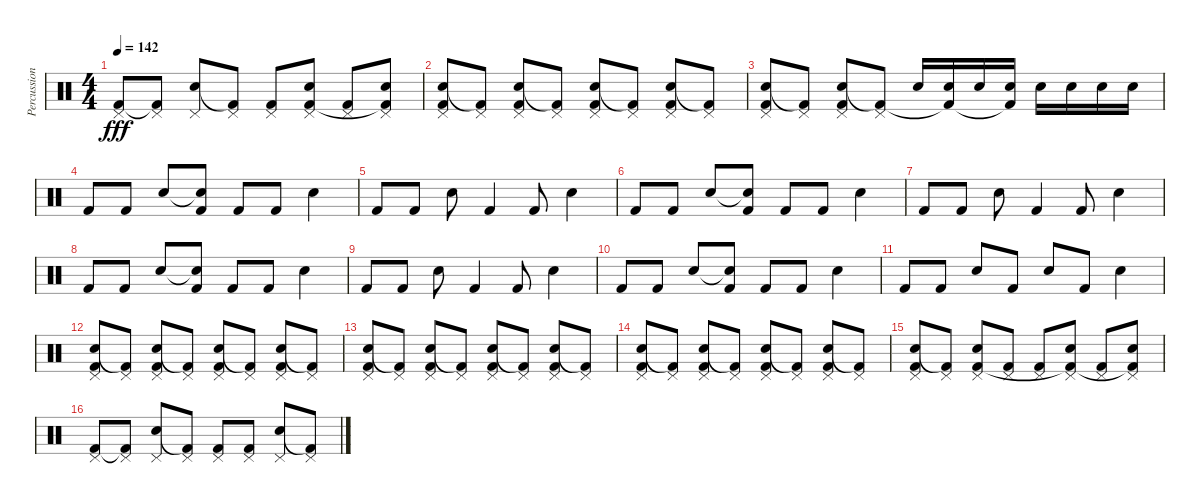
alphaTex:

\track ("Percussion" "Percussion") {instrument percussion}
\staff {score}
\articulation defaults
\ts (4 4)
\tempo 142
\clef neutral
\ks c
("Pedal Hi-Hat (hit)" "Kick (hit) 2").8{dy fff} ("Pedal Hi-Hat (hit)" "Kick (hit) 2"{t}).8 ("Pedal Hi-Hat (hit)" "Snare (hit) 2").8 ("Pedal Hi-Hat (hit)" "Kick (hit) 2"{t}).8 ("Pedal Hi-Hat (hit)" "Kick (hit) 2").8 ("Pedal Hi-Hat (hit)" "Snare (hit) 2" "Kick (hit) 2"{t}).8 ("Pedal Hi-Hat (hit)" "Kick (hit) 2").8 ("Pedal Hi-Hat (hit)" "Snare (hit) 2" "Kick (hit) 2"{t}).8 |
("Pedal Hi-Hat (hit)" "Snare (hit) 2" "Kick (hit) 2").8 ("Pedal Hi-Hat (hit)" "Kick (hit) 2"{t}).8 ("Pedal Hi-Hat (hit)" "Snare (hit) 2" "Kick (hit) 2").8 ("Pedal Hi-Hat (hit)" "Kick (hit) 2"{t}).8 ("Pedal Hi-Hat (hit)" "Snare (hit) 2" "Kick (hit) 2").8 ("Pedal Hi-Hat (hit)" "Kick (hit) 2"{t}).8 ("Pedal Hi-Hat (hit)" "Snare (hit) 2" "Kick (hit) 2").8 ("Pedal Hi-Hat (hit)" "Kick (hit) 2"{t}).8 |
("Pedal Hi-Hat (hit)" "Snare (hit) 2" "Kick (hit) 2").8 ("Pedal Hi-Hat (hit)" "Kick (hit) 2"{t}).8 ("Pedal Hi-Hat (hit)" "Snare (hit) 2" "Kick (hit) 2").8 ("Pedal Hi-Hat (hit)" "Kick (hit) 2"{t}).8 "Snare (hit) 2".16 ("Snare (hit) 2" "Kick (hit) 2"{t}).16 "Snare (hit) 2".16 ("Snare (hit) 2" "Kick (hit) 2"{t}).16 "Snare (hit) 2".16 "Snare (hit) 2".16 "Snare (hit) 2".16 "Snare (hit) 2".16 |
"Kick (hit) 2".8 "Kick (hit) 2".8 "Snare (hit) 2".8 ("Snare (hit) 2"{t} "Kick (hit) 2").8 "Kick (hit) 2".8 "Kick (hit) 2".8 "Snare (hit) 2".4 |
"Kick (hit) 2".8 "Kick (hit) 2".8 "Snare (hit) 2".8 "Kick (hit) 2".4 "Kick (hit) 2".8 "Snare (hit) 2".4 |
"Kick (hit) 2".8 "Kick (hit) 2".8 "Snare (hit) 2".8 ("Snare (hit) 2"{t} "Kick (hit) 2").8 "Kick (hit) 2".8 "Kick (hit) 2".8 "Snare (hit) 2".4 |
"Kick (hit) 2".8 "Kick (hit) 2".8 "Snare (hit) 2".8 "Kick (hit) 2".4 "Kick (hit) 2".8 "Snare (hit) 2".4 |
"Kick (hit) 2".8 "Kick (hit) 2".8 "Snare (hit) 2".8 ("Snare (hit) 2"{t} "Kick (hit) 2").8 "Kick (hit) 2".8 "Kick (hit) 2".8 "Snare (hit) 2".4 |
"Kick (hit) 2".8 "Kick (hit) 2".8 "Snare (hit) 2".8 "Kick (hit) 2".4 "Kick (hit) 2".8 "Snare (hit) 2".4 |
"Kick (hit) 2".8 "Kick (hit) 2".8 "Snare (hit) 2".8 ("Snare (hit) 2"{t} "Kick (hit) 2").8 "Kick (hit) 2".8 "Kick (hit) 2".8 "Snare (hit) 2".4 |
"Kick (hit) 2".8 "Kick (hit) 2".8 "Snare (hit) 2".8 "Kick (hit) 2".8 "Snare (hit) 2".8 "Kick (hit) 2".8 "Snare (hit) 2".4 |
("Pedal Hi-Hat (hit)" "Snare (hit) 2" "Kick (hit) 2").8 ("Pedal Hi-Hat (hit)" "Kick (hit) 2"{t}).8 ("Pedal Hi-Hat (hit)" "Snare (hit) 2" "Kick (hit) 2").8 ("Pedal Hi-Hat (hit)" "Kick (hit) 2"{t}).8 ("Pedal Hi-Hat (hit)" "Snare (hit) 2" "Kick (hit) 2").8 ("Pedal Hi-Hat (hit)" "Kick (hit) 2"{t}).8 ("Pedal Hi-Hat (hit)" "Snare (hit) 2" "Kick (hit) 2").8 ("Pedal Hi-Hat (hit)" "Kick (hit) 2"{t}).8 |
("Pedal Hi-Hat (hit)" "Snare (hit) 2" "Kick (hit) 2").8 ("Pedal Hi-Hat (hit)" "Kick (hit) 2"{t}).8 ("Pedal Hi-Hat (hit)" "Snare (hit) 2" "Kick (hit) 2").8 ("Pedal Hi-Hat (hit)" "Kick (hit) 2"{t}).8 ("Pedal Hi-Hat (hit)" "Snare (hit) 2" "Kick (hit) 2").8 ("Pedal Hi-Hat (hit)" "Kick (hit) 2"{t}).8 ("Pedal Hi-Hat (hit)" "Snare (hit) 2" "Kick (hit) 2").8 ("Pedal Hi-Hat (hit)" "Kick (hit) 2"{t}).8 |
("Pedal Hi-Hat (hit)" "Snare (hit) 2" "Kick (hit) 2").8 ("Pedal Hi-Hat (hit)" "Kick (hit) 2"{t}).8 ("Pedal Hi-Hat (hit)" "Snare (hit) 2" "Kick (hit) 2").8 ("Pedal Hi-Hat (hit)" "Kick (hit) 2"{t}).8 ("Pedal Hi-Hat (hit)" "Snare (hit) 2" "Kick (hit) 2").8 ("Pedal Hi-Hat (hit)" "Kick (hit) 2"{t}).8 ("Pedal Hi-Hat (hit)" "Snare (hit) 2" "Kick (hit) 2").8 ("Pedal Hi-Hat (hit)" "Kick (hit) 2"{t}).8 |
("Pedal Hi-Hat (hit)" "Snare (hit) 2" "Kick (hit) 2").8 ("Pedal Hi-Hat (hit)" "Kick (hit) 2"{t}).8 ("Pedal Hi-Hat (hit)" "Snare (hit) 2" "Kick (hit) 2").8 ("Pedal Hi-Hat (hit)" "Kick (hit) 2").8 ("Pedal Hi-Hat (hit)" "Kick (hit) 2").8 ("Pedal Hi-Hat (hit)" "Snare (hit) 2" "Kick (hit) 2"{t}).8 ("Pedal Hi-Hat (hit)" "Kick (hit) 2").8 ("Pedal Hi-Hat (hit)" "Snare (hit) 2" "Kick (hit) 2"{t}).8 |
("Pedal Hi-Hat (hit)" "Kick (hit) 2").8 ("Pedal Hi-Hat (hit)" "Kick (hit) 2"{t}).8 ("Pedal Hi-Hat (hit)" "Snare (hit) 2").8 ("Pedal Hi-Hat (hit)" "Kick (hit) 2"{t}).8 ("Pedal Hi-Hat (hit)" "Kick (hit) 2").8 ("Pedal Hi-Hat (hit)" "Kick (hit) 2").8 ("Pedal Hi-Hat (hit)" "Snare (hit) 2").8 ("Pedal Hi-Hat (hit)" "Kick (hit) 2"{t}).8
